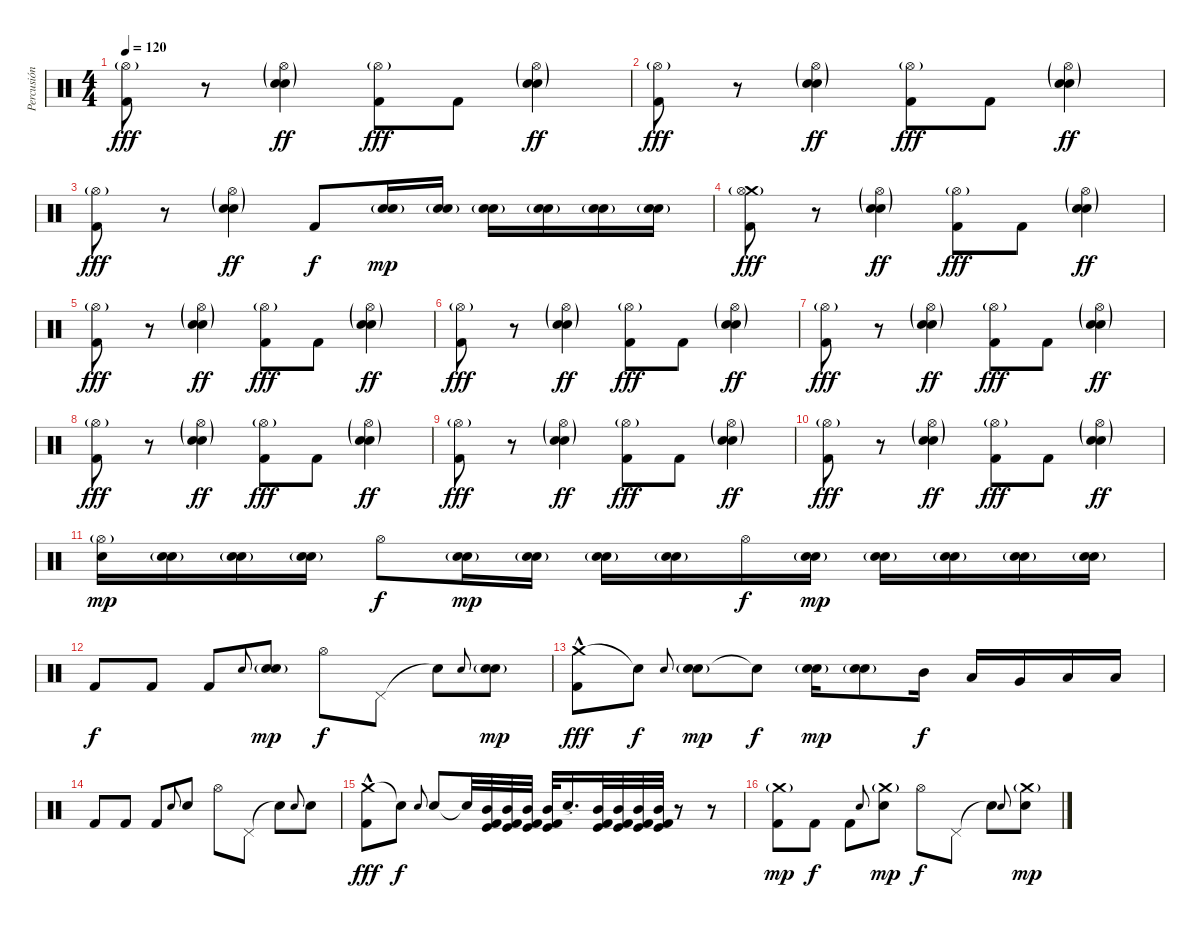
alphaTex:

\track ("Percusión" "Percusión") {instrument percussion}
\staff {score}
\articulation defaults
\ts (4 4)
\tempo 120
\clef neutral
\ks c
("Hi-Hat (open)"{g} "Kick (hit) 2").8{dy fff} r.8 ("Hi-Hat (open)"{g} "Electric Snare (hit)"{g} "Snare (hit) 2").4{dy ff} ("Hi-Hat (open)"{g} "Kick (hit) 2").8{dy fff} "Kick (hit) 2".8 ("Hi-Hat (open)"{g} "Electric Snare (hit)"{g} "Snare (hit) 2").4{dy ff} |
("Hi-Hat (open)"{g} "Kick (hit) 2").8{dy fff} r.8 ("Hi-Hat (open)"{g} "Electric Snare (hit)"{g} "Snare (hit) 2").4{dy ff} ("Hi-Hat (open)"{g} "Kick (hit) 2").8{dy fff} "Kick (hit) 2".8 ("Hi-Hat (open)"{g} "Electric Snare (hit)"{g} "Snare (hit) 2").4{dy ff} |
("Hi-Hat (open)"{g} "Kick (hit) 2").8{dy fff} r.8 ("Hi-Hat (open)"{g} "Electric Snare (hit)"{g} "Snare (hit) 2").4{dy ff} "Kick (hit) 2".8{dy f} ("Electric Snare (hit)"{g} "Snare (hit) 2").16{dy mp} ("Electric Snare (hit)"{g} "Snare (hit) 2").16 ("Electric Snare (hit)"{g} "Snare (hit) 2").16 ("Electric Snare (hit)"{g} "Snare (hit) 2").16 ("Electric Snare (hit)"{g} "Snare (hit) 2").16 ("Electric Snare (hit)"{g} "Snare (hit) 2").16 |
("Crash medium (hit)" "Hi-Hat (open)"{g} "Kick (hit) 2").8{dy fff} r.8 ("Hi-Hat (open)"{g} "Electric Snare (hit)"{g} "Snare (hit) 2").4{dy ff} ("Hi-Hat (open)"{g} "Kick (hit) 2").8{dy fff} "Kick (hit) 2".8 ("Hi-Hat (open)"{g} "Electric Snare (hit)"{g} "Snare (hit) 2").4{dy ff} |
("Hi-Hat (open)"{g} "Kick (hit) 2").8{dy fff} r.8 ("Hi-Hat (open)"{g} "Electric Snare (hit)"{g} "Snare (hit) 2").4{dy ff} ("Hi-Hat (open)"{g} "Kick (hit) 2").8{dy fff} "Kick (hit) 2".8 ("Hi-Hat (open)"{g} "Electric Snare (hit)"{g} "Snare (hit) 2").4{dy ff} |
("Hi-Hat (open)"{g} "Kick (hit) 2").8{dy fff} r.8 ("Hi-Hat (open)"{g} "Electric Snare (hit)"{g} "Snare (hit) 2").4{dy ff} ("Hi-Hat (open)"{g} "Kick (hit) 2").8{dy fff} "Kick (hit) 2".8 ("Hi-Hat (open)"{g} "Electric Snare (hit)"{g} "Snare (hit) 2").4{dy ff} |
("Hi-Hat (open)"{g} "Kick (hit) 2").8{dy fff} r.8 ("Hi-Hat (open)"{g} "Electric Snare (hit)"{g} "Snare (hit) 2").4{dy ff} ("Hi-Hat (open)"{g} "Kick (hit) 2").8{dy fff} "Kick (hit) 2".8 ("Hi-Hat (open)"{g} "Electric Snare (hit)"{g} "Snare (hit) 2").4{dy ff} |
("Hi-Hat (open)"{g} "Kick (hit) 2").8{dy fff} r.8 ("Hi-Hat (open)"{g} "Electric Snare (hit)"{g} "Snare (hit) 2").4{dy ff} ("Hi-Hat (open)"{g} "Kick (hit) 2").8{dy fff} "Kick (hit) 2".8 ("Hi-Hat (open)"{g} "Electric Snare (hit)"{g} "Snare (hit) 2").4{dy ff} |
("Hi-Hat (open)"{g} "Kick (hit) 2").8{dy fff} r.8 ("Hi-Hat (open)"{g} "Electric Snare (hit)"{g} "Snare (hit) 2").4{dy ff} ("Hi-Hat (open)"{g} "Kick (hit) 2").8{dy fff} "Kick (hit) 2".8 ("Hi-Hat (open)"{g} "Electric Snare (hit)"{g} "Snare (hit) 2").4{dy ff} |
("Hi-Hat (open)"{g} "Kick (hit) 2").8{dy fff} r.8 ("Hi-Hat (open)"{g} "Electric Snare (hit)"{g} "Snare (hit) 2").4{dy ff} ("Hi-Hat (open)"{g} "Kick (hit) 2").8{dy fff} "Kick (hit) 2".8 ("Hi-Hat (open)"{g} "Electric Snare (hit)"{g} "Snare (hit) 2").4{dy ff} |
("Hi-Hat (open)"{g} "Snare (hit) 2").16{dy mp} ("Electric Snare (hit)"{g} "Snare (hit) 2").16 ("Electric Snare (hit)"{g} "Snare (hit) 2").16 ("Electric Snare (hit)"{g} "Snare (hit) 2").16 "Hi-Hat (open)".8{dy f} ("Electric Snare (hit)"{g} "Snare (hit) 2").16{dy mp} ("Electric Snare (hit)"{g} "Snare (hit) 2").16 ("Electric Snare (hit)"{g} "Snare (hit) 2").16 ("Electric Snare (hit)"{g} "Snare (hit) 2").16 "Hi-Hat (open)".16{dy f} ("Electric Snare (hit)"{g} "Snare (hit) 2").16{dy mp} ("Electric Snare (hit)"{g} "Snare (hit) 2").16 ("Electric Snare (hit)"{g} "Snare (hit) 2").16 ("Electric Snare (hit)"{g} "Snare (hit) 2").16 ("Electric Snare (hit)"{g} "Snare (hit) 2").16 |
"Kick (hit) 2".8{dy f} "Kick (hit) 2".8 "Kick (hit) 2".8 "Snare (hit) 2".8{gr onbeat} ("Electric Snare (hit)"{g} "Snare (hit) 2").8{dy mp} "Hi-Hat (open)".8{dy f} "Pedal Hi-Hat (hit)".8 "Snare (hit) 2"{t}.8 "Snare (hit) 2".8{gr onbeat} ("Electric Snare (hit)"{g} "Snare (hit) 2").8{dy mp} |
("Crash medium (hit)"{hac} "Kick (hit) 2").8{dy fff} "Snare (hit)"{t}.8{dy f} "Snare (hit) 2".8{gr onbeat} ("Electric Snare (hit)"{g} "Snare (hit) 2").8{dy mp} "Snare (hit)"{t}.8{dy f} ("Electric Snare (hit)"{g} "Snare (hit) 2").16{dy mp} ("Electric Snare (hit)"{g} "Snare (hit) 2").8 "Mid Tom (hit)".16{dy f} "Low Tom (hit)".16 "Very Low Tom (hit)".16 "Low Floor Tom (hit)".16 "Low Floor Tom (hit)".16 |
"Kick (hit) 2".8 "Kick (hit) 2".8 "Kick (hit) 2".8 "Snare (hit) 2".8{gr onbeat} "Snare (hit) 2".8 "Hi-Hat (open)".8 "Pedal Hi-Hat (hit)".8 "Snare (hit) 2"{t}.8 "Snare (hit) 2".8{gr onbeat} "Snare (hit) 2".8 |
("Crash medium (hit)"{hac} "Kick (hit) 2"{hac}).8{dy fff} "Snare (hit)"{t}.8{dy f} "Snare (hit) 2".8{gr onbeat} "Snare (hit) 2".8 "Snare (hit)"{t}.32 ("Mid Tom (hit)" "Kick (hit) 2" "Kick (hit)").32 ("Mid Tom (hit)" "Kick (hit) 2" "Kick (hit)").32 ("Mid Tom (hit)" "Kick (hit) 2" "Kick (hit)").32 ("Mid Tom (hit)" "Kick (hit) 2" "Kick (hit)").32 "Snare (hit)"{t}.16{d} ("Mid Tom (hit)" "Kick (hit) 2" "Kick (hit)").32 ("Mid Tom (hit)" "Kick (hit) 2" "Kick (hit)").32 ("Mid Tom (hit)" "Kick (hit) 2" "Kick (hit)").32 ("Mid Tom (hit)" "Kick (hit) 2" "Kick (hit)").32 r.8 r.8 |
("Crash medium (hit)"{g} "Kick (hit) 2").8{dy mp} "Kick (hit) 2".8{dy f} "Kick (hit) 2".8 "Snare (hit) 2".8{gr onbeat} ("Crash medium (hit)"{g} "Snare (hit) 2").8{dy mp} "Hi-Hat (open)".8{dy f} "Pedal Hi-Hat (hit)".8 "Snare (hit) 2"{t}.8 "Snare (hit) 2".8{gr onbeat} ("Crash medium (hit)"{g} "Snare (hit) 2").8{dy mp}
